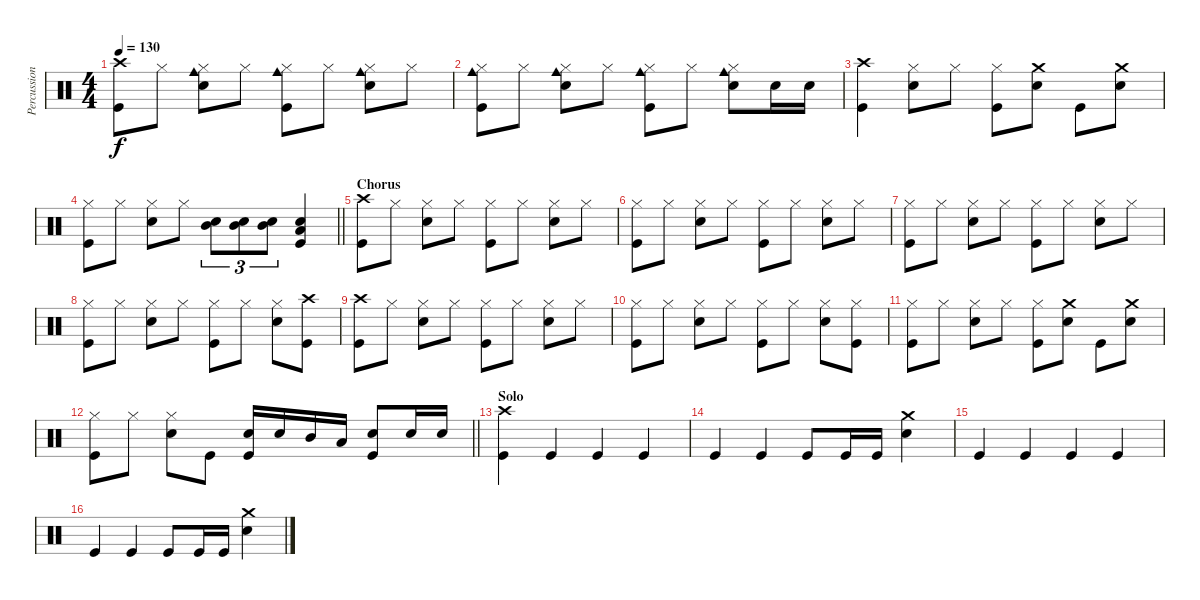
\track ("Percussions" "Percussion") {instrument percussion}
\staff {score}
\articulation defaults
\ts (4 4)
\tempo 130
\clef neutral
\ks c
("Crash high (hit)" "Kick (hit)").8{dy f} "Hi-Hat (closed)".8 ("Cowbell medium (hit)" "Hi-Hat (closed)" "Snare (hit) 2").8 "Hi-Hat (closed)".8 ("Cowbell medium (hit)" "Hi-Hat (closed)" "Kick (hit)").8 "Hi-Hat (closed)".8 ("Cowbell medium (hit)" "Hi-Hat (closed)" "Snare (hit) 2").8 "Hi-Hat (closed)".8 |
("Cowbell medium (hit)" "Hi-Hat (closed)" "Kick (hit)").8 "Hi-Hat (closed)".8 ("Cowbell medium (hit)" "Hi-Hat (closed)" "Snare (hit) 2").8 "Hi-Hat (closed)".8 ("Cowbell medium (hit)" "Hi-Hat (closed)" "Kick (hit)").8 "Hi-Hat (closed)".8 ("Cowbell medium (hit)" "Hi-Hat (closed)" "Snare (hit) 2").8 "Snare (hit) 2".16 "Snare (hit) 2".16 |
("Crash high (hit)" "Kick (hit)").4 ("Hi-Hat (closed)" "Snare (hit) 2").8 "Hi-Hat (closed)".8 ("Hi-Hat (closed)" "Kick (hit)").8 ("Crash medium (hit)" "Snare (hit) 2").8 "Kick (hit)".8 ("Crash medium (hit)" "Snare (hit) 2").8 |
\barLineRight lightlight
("Hi-Hat (closed)" "Kick (hit)").8 "Hi-Hat (closed)".8 ("Hi-Hat (closed)" "Snare (hit) 2").8 "Hi-Hat (closed)".8 ("Mid Tom (hit)" "Snare (hit) 2").8{tu (3 2)} ("Mid Tom (hit)" "Snare (hit) 2").8{tu (3 2)} ("Mid Tom (hit)" "Snare (hit) 2").8{tu (3 2)} ("Low Tom (hit)" "Snare (hit) 2" "Kick (hit)").4 |
\section ("" "Chorus")
("Crash high (hit)" "Kick (hit)").8 "Hi-Hat (closed)".8 ("Hi-Hat (closed)" "Snare (hit) 2").8 "Hi-Hat (closed)".8 ("Hi-Hat (closed)" "Kick (hit)").8 "Hi-Hat (closed)".8 ("Hi-Hat (closed)" "Snare (hit) 2").8 "Hi-Hat (closed)".8 |
("Hi-Hat (closed)" "Kick (hit)").8 "Hi-Hat (closed)".8 ("Hi-Hat (closed)" "Snare (hit) 2").8 "Hi-Hat (closed)".8 ("Hi-Hat (closed)" "Kick (hit)").8 "Hi-Hat (closed)".8 ("Hi-Hat (closed)" "Snare (hit) 2").8 "Hi-Hat (closed)".8 |
("Hi-Hat (closed)" "Kick (hit)").8 "Hi-Hat (closed)".8 ("Hi-Hat (closed)" "Snare (hit) 2").8 "Hi-Hat (closed)".8 ("Hi-Hat (closed)" "Kick (hit)").8 "Hi-Hat (closed)".8 ("Hi-Hat (closed)" "Snare (hit) 2").8 "Hi-Hat (closed)".8 |
("Hi-Hat (closed)" "Kick (hit)").8 "Hi-Hat (closed)".8 ("Hi-Hat (closed)" "Snare (hit) 2").8 "Hi-Hat (closed)".8 ("Hi-Hat (closed)" "Kick (hit)").8 "Hi-Hat (closed)".8 ("Hi-Hat (closed)" "Snare (hit) 2").8 ("Crash high (hit)" "Kick (hit)").8 |
("Crash high (hit)" "Kick (hit)").8 "Hi-Hat (closed)".8 ("Hi-Hat (closed)" "Snare (hit) 2").8 "Hi-Hat (closed)".8 ("Hi-Hat (closed)" "Kick (hit)").8 "Hi-Hat (closed)".8 ("Hi-Hat (closed)" "Snare (hit) 2").8 "Hi-Hat (closed)".8 |
("Hi-Hat (closed)" "Kick (hit)").8 "Hi-Hat (closed)".8 ("Hi-Hat (closed)" "Snare (hit) 2").8 "Hi-Hat (closed)".8 ("Hi-Hat (closed)" "Kick (hit)").8 "Hi-Hat (closed)".8 ("Hi-Hat (closed)" "Snare (hit) 2").8 ("Hi-Hat (closed)" "Kick (hit)").8 |
("Hi-Hat (closed)" "Kick (hit)").8 "Hi-Hat (closed)".8 ("Hi-Hat (closed)" "Snare (hit) 2").8 "Hi-Hat (closed)".8 ("Hi-Hat (closed)" "Kick (hit)").8 ("Crash medium (hit)" "Snare (hit) 2").8 "Kick (hit)".8 ("Crash medium (hit)" "Snare (hit) 2").8 |
\barLineRight lightlight
("Hi-Hat (closed)" "Kick (hit)").8 "Hi-Hat (closed)".8 ("Hi-Hat (closed)" "Snare (hit) 2").8 "Kick (hit)".8 ("Snare (hit) 2" "Kick (hit)").16 "Snare (hit) 2".16 "Mid Tom (hit)".16 "Low Tom (hit)".16 ("Snare (hit) 2" "Kick (hit)").8 "Snare (hit) 2".16 "Snare (hit) 2".16 |
\section ("" "Solo")
("Crash high (hit)" "Kick (hit)").4 "Kick (hit)".4 "Kick (hit)".4 "Kick (hit)".4 |
"Kick (hit)".4 "Kick (hit)".4 "Kick (hit)".8 "Kick (hit)".16 "Kick (hit)".16 ("Crash medium (hit)" "Snare (hit) 2").4 |
"Kick (hit)".4 "Kick (hit)".4 "Kick (hit)".4 "Kick (hit)".4 |
"Kick (hit)".4 "Kick (hit)".4 "Kick (hit)".8 "Kick (hit)".16 "Kick (hit)".16 ("Crash medium (hit)" "Snare (hit) 2").4
